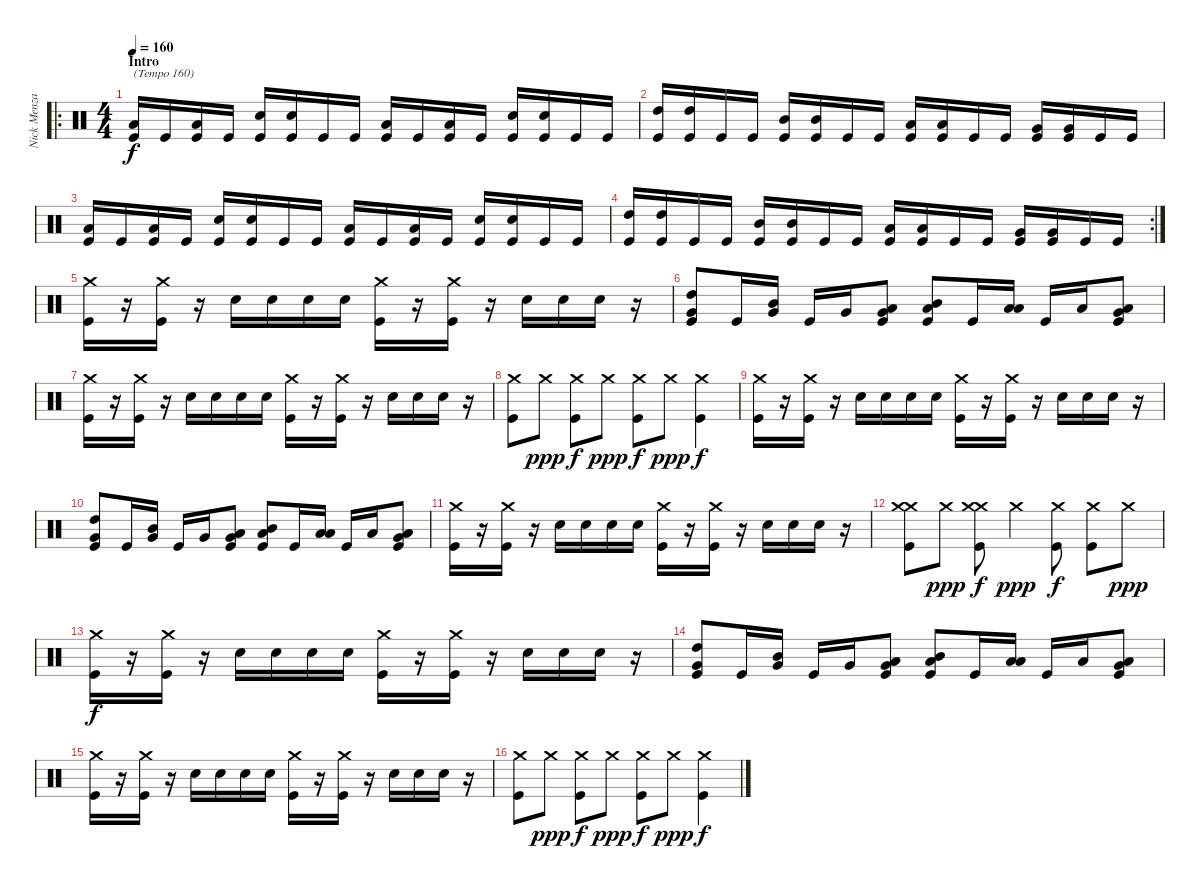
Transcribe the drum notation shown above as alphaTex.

\track ("Nick Menza" "Nick Menza") {instrument percussion}
\staff {score}
\articulation defaults
\ro
\ts (4 4)
\section ("" "Intro")
\tempo 160
\clef neutral
\ks c
("Low Floor Tom (hit)" "Kick (hit)").16{txt "(Tempo 160)" dy f} "Kick (hit)".16 ("Low Floor Tom (hit)" "Kick (hit)").16 "Kick (hit)".16 ("Snare (hit) 2" "Kick (hit)").16 ("Snare (hit) 2" "Kick (hit)").16 "Kick (hit)".16 "Kick (hit)".16 ("Low Floor Tom (hit)" "Kick (hit)").16 "Kick (hit)".16 ("Low Floor Tom (hit)" "Kick (hit)").16 "Kick (hit)".16 ("Snare (hit) 2" "Kick (hit)").16 ("Snare (hit) 2" "Kick (hit)").16 "Kick (hit)".16 "Kick (hit)".16 |
("High Tom (hit)" "Kick (hit)").16 ("High Tom (hit)" "Kick (hit)").16 "Kick (hit)".16 "Kick (hit)".16 ("Mid Tom (hit)" "Kick (hit)").16 ("Mid Tom (hit)" "Kick (hit)").16 "Kick (hit)".16 "Kick (hit)".16 ("Low Tom (hit)" "Kick (hit)").16 ("Low Tom (hit)" "Kick (hit)").16 "Kick (hit)".16 "Kick (hit)".16 ("Very Low Tom (hit)" "Kick (hit)").16 ("Very Low Tom (hit)" "Kick (hit)").16 "Kick (hit)".16 "Kick (hit)".16 |
("Low Floor Tom (hit)" "Kick (hit)").16 "Kick (hit)".16 ("Low Floor Tom (hit)" "Kick (hit)").16 "Kick (hit)".16 ("Snare (hit) 2" "Kick (hit)").16 ("Snare (hit) 2" "Kick (hit)").16 "Kick (hit)".16 "Kick (hit)".16 ("Low Floor Tom (hit)" "Kick (hit)").16 "Kick (hit)".16 ("Low Floor Tom (hit)" "Kick (hit)").16 "Kick (hit)".16 ("Snare (hit) 2" "Kick (hit)").16 ("Snare (hit) 2" "Kick (hit)").16 "Kick (hit)".16 "Kick (hit)".16 |
\rc 2
("High Tom (hit)" "Kick (hit)").16 ("High Tom (hit)" "Kick (hit)").16 "Kick (hit)".16 "Kick (hit)".16 ("Mid Tom (hit)" "Kick (hit)").16 ("Mid Tom (hit)" "Kick (hit)").16 "Kick (hit)".16 "Kick (hit)".16 ("Low Tom (hit)" "Kick (hit)").16 ("Low Tom (hit)" "Kick (hit)").16 "Kick (hit)".16 "Kick (hit)".16 ("Very Low Tom (hit)" "Kick (hit)").16 ("Very Low Tom (hit)" "Kick (hit)").16 "Kick (hit)".16 "Kick (hit)".16 |
("Crash medium (hit)" "Kick (hit)").16 r.16 ("Crash medium (hit)" "Kick (hit)").16 r.16 "Snare (hit) 2".16 "Snare (hit) 2".16 "Snare (hit) 2".16 "Snare (hit) 2".16 ("Crash medium (hit)" "Kick (hit)").16 r.16 ("Crash medium (hit)" "Kick (hit)").16 r.16 "Snare (hit) 2".16 "Snare (hit) 2".16 "Snare (hit) 2".16 r.16 |
("High Tom (hit)" "Very Low Tom (hit)" "Kick (hit)").8 "Kick (hit)".16 ("Mid Tom (hit)" "Very Low Tom (hit)").16 "Kick (hit)".16 "Very Low Tom (hit)".16 ("Low Tom (hit)" "Very Low Tom (hit)" "Kick (hit)").8 ("Mid Tom (hit)" "Low Floor Tom (hit)" "Kick (hit)").8 "Kick (hit)".16 ("Low Tom (hit)" "Low Floor Tom (hit)").16 "Kick (hit)".16 "Low Floor Tom (hit)".16 ("Very Low Tom (hit)" "Low Floor Tom (hit)" "Kick (hit)").8 |
("Crash medium (hit)" "Kick (hit)").16 r.16 ("Crash medium (hit)" "Kick (hit)").16 r.16 "Snare (hit) 2".16 "Snare (hit) 2".16 "Snare (hit) 2".16 "Snare (hit) 2".16 ("Crash medium (hit)" "Kick (hit)").16 r.16 ("Crash medium (hit)" "Kick (hit)").16 r.16 "Snare (hit) 2".16 "Snare (hit) 2".16 "Snare (hit) 2".16 r.16 |
("Crash medium (hit)" "Kick (hit)").8 "Crash medium (hit)".8{dy ppp} ("Crash medium (hit)" "Kick (hit)").8{dy f} "Crash medium (hit)".8{dy ppp} ("Crash medium (hit)" "Kick (hit)").8{dy f} "Crash medium (hit)".8{dy ppp} ("Crash medium (hit)" "Kick (hit)").4{dy f} |
("Crash medium (hit)" "Kick (hit)").16 r.16 ("Crash medium (hit)" "Kick (hit)").16 r.16 "Snare (hit) 2".16 "Snare (hit) 2".16 "Snare (hit) 2".16 "Snare (hit) 2".16 ("Crash medium (hit)" "Kick (hit)").16 r.16 ("Crash medium (hit)" "Kick (hit)").16 r.16 "Snare (hit) 2".16 "Snare (hit) 2".16 "Snare (hit) 2".16 r.16 |
("High Tom (hit)" "Very Low Tom (hit)" "Kick (hit)").8 "Kick (hit)".16 ("Mid Tom (hit)" "Very Low Tom (hit)").16 "Kick (hit)".16 "Very Low Tom (hit)".16 ("Low Tom (hit)" "Very Low Tom (hit)" "Kick (hit)").8 ("Mid Tom (hit)" "Low Floor Tom (hit)" "Kick (hit)").8 "Kick (hit)".16 ("Low Tom (hit)" "Low Floor Tom (hit)").16 "Kick (hit)".16 "Low Floor Tom (hit)".16 ("Very Low Tom (hit)" "Low Floor Tom (hit)" "Kick (hit)").8 |
("Crash medium (hit)" "Kick (hit)").16 r.16 ("Crash medium (hit)" "Kick (hit)").16 r.16 "Snare (hit) 2".16 "Snare (hit) 2".16 "Snare (hit) 2".16 "Snare (hit) 2".16 ("Crash medium (hit)" "Kick (hit)").16 r.16 ("Crash medium (hit)" "Kick (hit)").16 r.16 "Snare (hit) 2".16 "Snare (hit) 2".16 "Snare (hit) 2".16 r.16 |
("Crash medium (hit)" "Crash medium (hit)" "Kick (hit)").8 "Crash medium (hit)".8{dy ppp} ("Crash medium (hit)" "Crash medium (hit)" "Kick (hit)").8{dy f} "Crash medium (hit)".4{dy ppp} ("Crash medium (hit)" "Kick (hit)").8{dy f} ("Crash medium (hit)" "Kick (hit)").8 "Crash medium (hit)".8{dy ppp} |
("Crash medium (hit)" "Kick (hit)").16{dy f} r.16 ("Crash medium (hit)" "Kick (hit)").16 r.16 "Snare (hit) 2".16 "Snare (hit) 2".16 "Snare (hit) 2".16 "Snare (hit) 2".16 ("Crash medium (hit)" "Kick (hit)").16 r.16 ("Crash medium (hit)" "Kick (hit)").16 r.16 "Snare (hit) 2".16 "Snare (hit) 2".16 "Snare (hit) 2".16 r.16 |
("High Tom (hit)" "Very Low Tom (hit)" "Kick (hit)").8 "Kick (hit)".16 ("Mid Tom (hit)" "Very Low Tom (hit)").16 "Kick (hit)".16 "Very Low Tom (hit)".16 ("Low Tom (hit)" "Very Low Tom (hit)" "Kick (hit)").8 ("Mid Tom (hit)" "Low Floor Tom (hit)" "Kick (hit)").8 "Kick (hit)".16 ("Low Tom (hit)" "Low Floor Tom (hit)").16 "Kick (hit)".16 "Low Floor Tom (hit)".16 ("Very Low Tom (hit)" "Low Floor Tom (hit)" "Kick (hit)").8 |
("Crash medium (hit)" "Kick (hit)").16 r.16 ("Crash medium (hit)" "Kick (hit)").16 r.16 "Snare (hit) 2".16 "Snare (hit) 2".16 "Snare (hit) 2".16 "Snare (hit) 2".16 ("Crash medium (hit)" "Kick (hit)").16 r.16 ("Crash medium (hit)" "Kick (hit)").16 r.16 "Snare (hit) 2".16 "Snare (hit) 2".16 "Snare (hit) 2".16 r.16 |
("Crash medium (hit)" "Kick (hit)").8 "Crash medium (hit)".8{dy ppp} ("Crash medium (hit)" "Kick (hit)").8{dy f} "Crash medium (hit)".8{dy ppp} ("Crash medium (hit)" "Kick (hit)").8{dy f} "Crash medium (hit)".8{dy ppp} ("Crash medium (hit)" "Kick (hit)").4{dy f}
